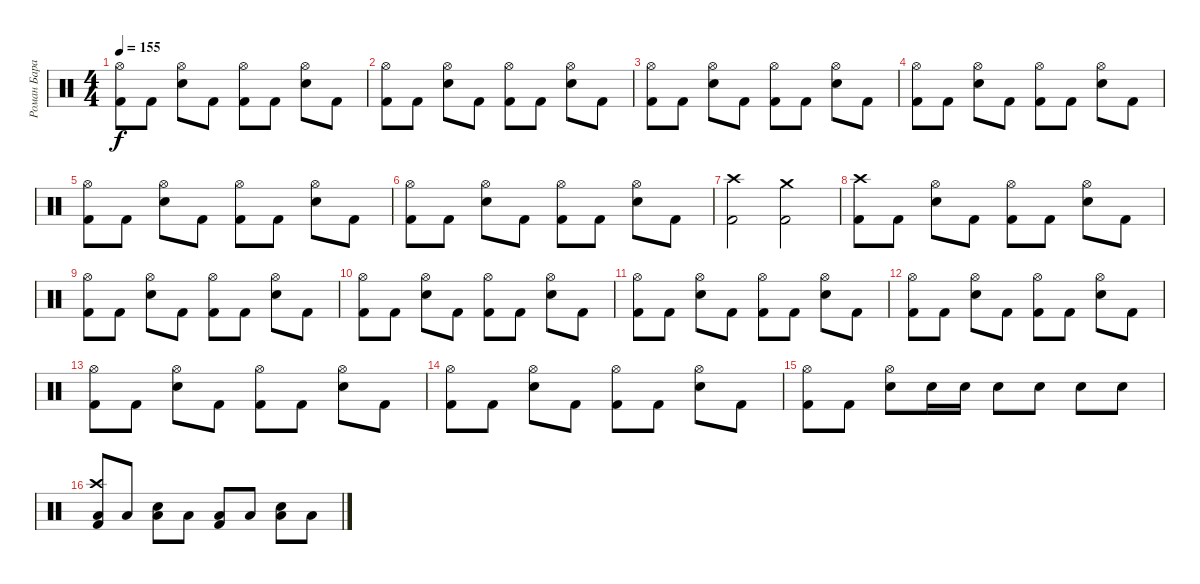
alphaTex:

\track ("Роман Баранюк (Meinl, Vic Firth, Peace)" "Роман Бара") {instrument percussion}
\staff {score}
\articulation defaults
\ts (4 4)
\tempo 155
\clef neutral
\ks c
("Hi-Hat (open)" "Kick (hit) 2").8{dy f} "Kick (hit) 2".8 ("Hi-Hat (open)" "Snare (hit) 2").8 "Kick (hit) 2".8 ("Hi-Hat (open)" "Kick (hit) 2").8 "Kick (hit) 2".8 ("Hi-Hat (open)" "Snare (hit) 2").8 "Kick (hit) 2".8 |
("Hi-Hat (open)" "Kick (hit) 2").8 "Kick (hit) 2".8 ("Hi-Hat (open)" "Snare (hit) 2").8 "Kick (hit) 2".8 ("Hi-Hat (open)" "Kick (hit) 2").8 "Kick (hit) 2".8 ("Hi-Hat (open)" "Snare (hit) 2").8 "Kick (hit) 2".8 |
("Hi-Hat (open)" "Kick (hit) 2").8 "Kick (hit) 2".8 ("Hi-Hat (open)" "Snare (hit) 2").8 "Kick (hit) 2".8 ("Hi-Hat (open)" "Kick (hit) 2").8 "Kick (hit) 2".8 ("Hi-Hat (open)" "Snare (hit) 2").8 "Kick (hit) 2".8 |
("Hi-Hat (open)" "Kick (hit) 2").8 "Kick (hit) 2".8 ("Hi-Hat (open)" "Snare (hit) 2").8 "Kick (hit) 2".8 ("Hi-Hat (open)" "Kick (hit) 2").8 "Kick (hit) 2".8 ("Hi-Hat (open)" "Snare (hit) 2").8 "Kick (hit) 2".8 |
("Hi-Hat (open)" "Kick (hit) 2").8 "Kick (hit) 2".8 ("Hi-Hat (open)" "Snare (hit) 2").8 "Kick (hit) 2".8 ("Hi-Hat (open)" "Kick (hit) 2").8 "Kick (hit) 2".8 ("Hi-Hat (open)" "Snare (hit) 2").8 "Kick (hit) 2".8 |
("Hi-Hat (open)" "Kick (hit) 2").8 "Kick (hit) 2".8 ("Hi-Hat (open)" "Snare (hit) 2").8 "Kick (hit) 2".8 ("Hi-Hat (open)" "Kick (hit) 2").8 "Kick (hit) 2".8 ("Hi-Hat (open)" "Snare (hit) 2").8 "Kick (hit) 2".8 |
("Crash high (hit)" "Kick (hit) 2").2 ("Crash medium (hit)" "Kick (hit) 2").2 |
("Crash high (hit)" "Kick (hit) 2").8 "Kick (hit) 2".8 ("Hi-Hat (open)" "Snare (hit) 2").8 "Kick (hit) 2".8 ("Hi-Hat (open)" "Kick (hit) 2").8 "Kick (hit) 2".8 ("Hi-Hat (open)" "Snare (hit) 2").8 "Kick (hit) 2".8 |
("Hi-Hat (open)" "Kick (hit) 2").8 "Kick (hit) 2".8 ("Hi-Hat (open)" "Snare (hit) 2").8 "Kick (hit) 2".8 ("Hi-Hat (open)" "Kick (hit) 2").8 "Kick (hit) 2".8 ("Hi-Hat (open)" "Snare (hit) 2").8 "Kick (hit) 2".8 |
("Hi-Hat (open)" "Kick (hit) 2").8 "Kick (hit) 2".8 ("Hi-Hat (open)" "Snare (hit) 2").8 "Kick (hit) 2".8 ("Hi-Hat (open)" "Kick (hit) 2").8 "Kick (hit) 2".8 ("Hi-Hat (open)" "Snare (hit) 2").8 "Kick (hit) 2".8 |
("Hi-Hat (open)" "Kick (hit) 2").8 "Kick (hit) 2".8 ("Hi-Hat (open)" "Snare (hit) 2").8 "Kick (hit) 2".8 ("Hi-Hat (open)" "Kick (hit) 2").8 "Kick (hit) 2".8 ("Hi-Hat (open)" "Snare (hit) 2").8 "Kick (hit) 2".8 |
("Hi-Hat (open)" "Kick (hit) 2").8 "Kick (hit) 2".8 ("Hi-Hat (open)" "Snare (hit) 2").8 "Kick (hit) 2".8 ("Hi-Hat (open)" "Kick (hit) 2").8 "Kick (hit) 2".8 ("Hi-Hat (open)" "Snare (hit) 2").8 "Kick (hit) 2".8 |
("Hi-Hat (open)" "Kick (hit) 2").8 "Kick (hit) 2".8 ("Hi-Hat (open)" "Snare (hit) 2").8 "Kick (hit) 2".8 ("Hi-Hat (open)" "Kick (hit) 2").8 "Kick (hit) 2".8 ("Hi-Hat (open)" "Snare (hit) 2").8 "Kick (hit) 2".8 |
("Hi-Hat (open)" "Kick (hit) 2").8 "Kick (hit) 2".8 ("Hi-Hat (open)" "Snare (hit) 2").8 "Kick (hit) 2".8 ("Hi-Hat (open)" "Kick (hit) 2").8 "Kick (hit) 2".8 ("Hi-Hat (open)" "Snare (hit) 2").8 "Kick (hit) 2".8 |
("Hi-Hat (open)" "Kick (hit) 2").8 "Kick (hit) 2".8 ("Hi-Hat (open)" "Snare (hit) 2").8 "Snare (hit) 2".16 "Snare (hit) 2".16 "Snare (hit) 2".8 "Snare (hit) 2".8 "Snare (hit) 2".8 "Snare (hit) 2".8 |
("Crash high (hit)" "Low Tom (hit)" "Kick (hit) 2").8 "Low Tom (hit)".8 ("Snare (hit) 2" "Low Tom (hit)").8 "Low Tom (hit)".8 ("Low Tom (hit)" "Kick (hit) 2").8 "Low Tom (hit)".8 ("Snare (hit) 2" "Low Tom (hit)").8 "Low Tom (hit)".8
